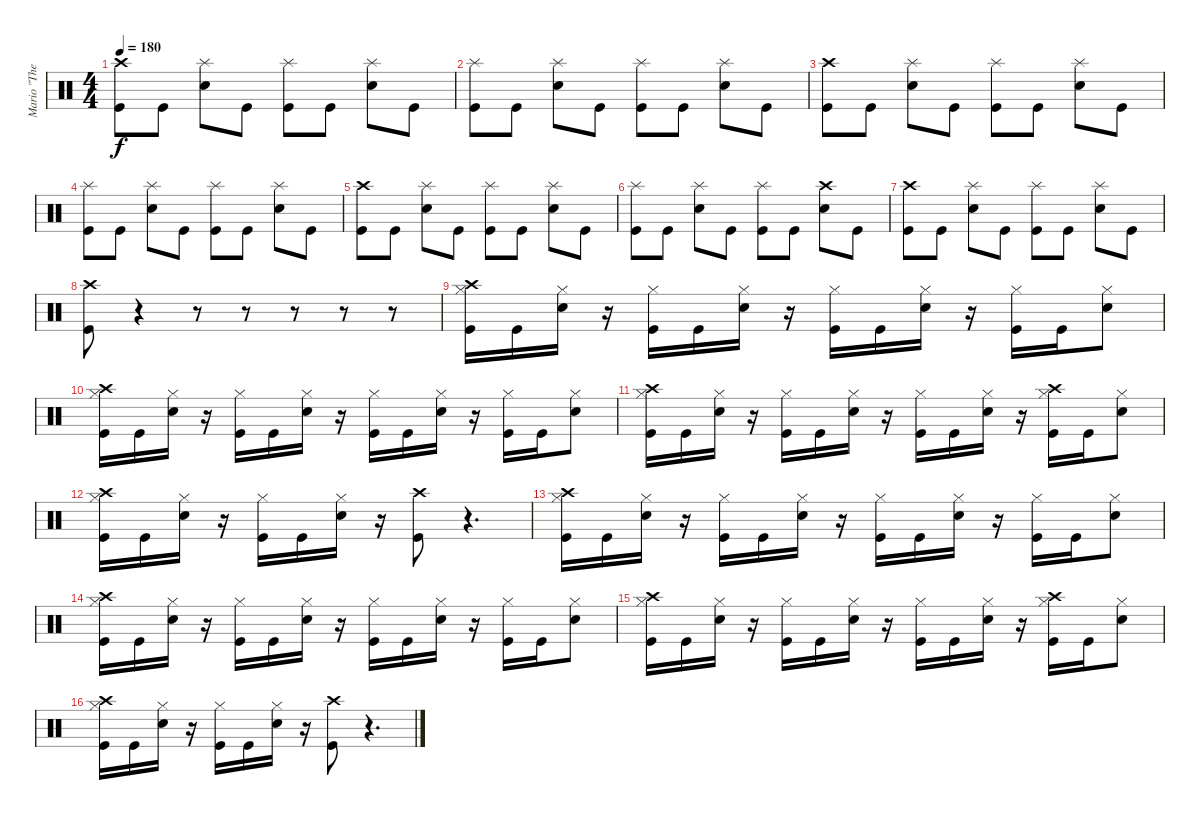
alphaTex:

\track ("Mario \"The dremmel\" Hirt" "Mario \"The") {instrument percussion}
\staff {score}
\articulation defaults
\ts (4 4)
\tempo 180
\clef neutral
\ks c
("Crash high (hit)" "Kick (hit)").8{dy f} "Kick (hit)".8 ("Splash (hit)" "Electric Snare (hit)").8 "Kick (hit)".8 ("Splash (hit)" "Kick (hit)").8 "Kick (hit)".8 ("Splash (hit)" "Electric Snare (hit)").8 "Kick (hit)".8 |
("Splash (hit)" "Kick (hit)").8 "Kick (hit)".8 ("Splash (hit)" "Electric Snare (hit)").8 "Kick (hit)".8 ("Splash (hit)" "Kick (hit)").8 "Kick (hit)".8 ("Splash (hit)" "Electric Snare (hit)").8 "Kick (hit)".8 |
("Crash high (hit)" "Kick (hit)").8 "Kick (hit)".8 ("Splash (hit)" "Electric Snare (hit)").8 "Kick (hit)".8 ("Splash (hit)" "Kick (hit)").8 "Kick (hit)".8 ("Splash (hit)" "Electric Snare (hit)").8 "Kick (hit)".8 |
("Splash (hit)" "Kick (hit)").8 "Kick (hit)".8 ("Splash (hit)" "Electric Snare (hit)").8 "Kick (hit)".8 ("Splash (hit)" "Kick (hit)").8 "Kick (hit)".8 ("Splash (hit)" "Electric Snare (hit)").8 "Kick (hit)".8 |
("Crash high (hit)" "Kick (hit)").8 "Kick (hit)".8 ("Splash (hit)" "Electric Snare (hit)").8 "Kick (hit)".8 ("Splash (hit)" "Kick (hit)").8 "Kick (hit)".8 ("Splash (hit)" "Electric Snare (hit)").8 "Kick (hit)".8 |
("Splash (hit)" "Kick (hit)").8 "Kick (hit)".8 ("Splash (hit)" "Electric Snare (hit)").8 "Kick (hit)".8 ("Splash (hit)" "Kick (hit)").8 "Kick (hit)".8 ("Crash high (hit)" "Electric Snare (hit)").8 "Kick (hit)".8 |
("Crash high (hit)" "Kick (hit)").8 "Kick (hit)".8 ("Splash (hit)" "Electric Snare (hit)").8 "Kick (hit)".8 ("Splash (hit)" "Kick (hit)").8 "Kick (hit)".8 ("Splash (hit)" "Electric Snare (hit)").8 "Kick (hit)".8 |
("Crash high (hit)" "Kick (hit)").8 r.4 r.8 r.8 r.8 r.8 r.8 |
("Crash high (hit)" "Hi-Hat (closed)" "Kick (hit)").16 "Kick (hit)".16 ("Hi-Hat (closed)" "Electric Snare (hit)").16 r.16 ("Hi-Hat (closed)" "Kick (hit)").16 "Kick (hit)".16 ("Hi-Hat (closed)" "Electric Snare (hit)").16 r.16 ("Hi-Hat (closed)" "Kick (hit)").16 "Kick (hit)".16 ("Hi-Hat (closed)" "Electric Snare (hit)").16 r.16 ("Hi-Hat (closed)" "Kick (hit)").16 "Kick (hit)".16 ("Hi-Hat (closed)" "Electric Snare (hit)").8 |
("Crash high (hit)" "Hi-Hat (closed)" "Kick (hit)").16 "Kick (hit)".16 ("Hi-Hat (closed)" "Electric Snare (hit)").16 r.16 ("Hi-Hat (closed)" "Kick (hit)").16 "Kick (hit)".16 ("Hi-Hat (closed)" "Electric Snare (hit)").16 r.16 ("Hi-Hat (closed)" "Kick (hit)").16 "Kick (hit)".16 ("Hi-Hat (closed)" "Electric Snare (hit)").16 r.16 ("Hi-Hat (closed)" "Kick (hit)").16 "Kick (hit)".16 ("Hi-Hat (closed)" "Electric Snare (hit)").8 |
("Crash high (hit)" "Hi-Hat (closed)" "Kick (hit)").16 "Kick (hit)".16 ("Hi-Hat (closed)" "Electric Snare (hit)").16 r.16 ("Hi-Hat (closed)" "Kick (hit)").16 "Kick (hit)".16 ("Hi-Hat (closed)" "Electric Snare (hit)").16 r.16 ("Hi-Hat (closed)" "Kick (hit)").16 "Kick (hit)".16 ("Hi-Hat (closed)" "Electric Snare (hit)").16 r.16 ("Crash high (hit)" "Hi-Hat (closed)" "Kick (hit)").16 "Kick (hit)".16 ("Hi-Hat (closed)" "Electric Snare (hit)").8 |
("Crash high (hit)" "Hi-Hat (closed)" "Kick (hit)").16 "Kick (hit)".16 ("Hi-Hat (closed)" "Electric Snare (hit)").16 r.16 ("Hi-Hat (closed)" "Kick (hit)").16 "Kick (hit)".16 ("Hi-Hat (closed)" "Electric Snare (hit)").16 r.16 ("Crash high (hit)" "Kick (hit)").8 r.4{d} |
("Crash high (hit)" "Hi-Hat (closed)" "Kick (hit)").16 "Kick (hit)".16 ("Hi-Hat (closed)" "Electric Snare (hit)").16 r.16 ("Hi-Hat (closed)" "Kick (hit)").16 "Kick (hit)".16 ("Hi-Hat (closed)" "Electric Snare (hit)").16 r.16 ("Hi-Hat (closed)" "Kick (hit)").16 "Kick (hit)".16 ("Hi-Hat (closed)" "Electric Snare (hit)").16 r.16 ("Hi-Hat (closed)" "Kick (hit)").16 "Kick (hit)".16 ("Hi-Hat (closed)" "Electric Snare (hit)").8 |
("Crash high (hit)" "Hi-Hat (closed)" "Kick (hit)").16 "Kick (hit)".16 ("Hi-Hat (closed)" "Electric Snare (hit)").16 r.16 ("Hi-Hat (closed)" "Kick (hit)").16 "Kick (hit)".16 ("Hi-Hat (closed)" "Electric Snare (hit)").16 r.16 ("Hi-Hat (closed)" "Kick (hit)").16 "Kick (hit)".16 ("Hi-Hat (closed)" "Electric Snare (hit)").16 r.16 ("Hi-Hat (closed)" "Kick (hit)").16 "Kick (hit)".16 ("Hi-Hat (closed)" "Electric Snare (hit)").8 |
("Crash high (hit)" "Hi-Hat (closed)" "Kick (hit)").16 "Kick (hit)".16 ("Hi-Hat (closed)" "Electric Snare (hit)").16 r.16 ("Hi-Hat (closed)" "Kick (hit)").16 "Kick (hit)".16 ("Hi-Hat (closed)" "Electric Snare (hit)").16 r.16 ("Hi-Hat (closed)" "Kick (hit)").16 "Kick (hit)".16 ("Hi-Hat (closed)" "Electric Snare (hit)").16 r.16 ("Crash high (hit)" "Hi-Hat (closed)" "Kick (hit)").16 "Kick (hit)".16 ("Hi-Hat (closed)" "Electric Snare (hit)").8 |
("Crash high (hit)" "Hi-Hat (closed)" "Kick (hit)").16 "Kick (hit)".16 ("Hi-Hat (closed)" "Electric Snare (hit)").16 r.16 ("Hi-Hat (closed)" "Kick (hit)").16 "Kick (hit)".16 ("Hi-Hat (closed)" "Electric Snare (hit)").16 r.16 ("Crash high (hit)" "Kick (hit)").8 r.4{d}
